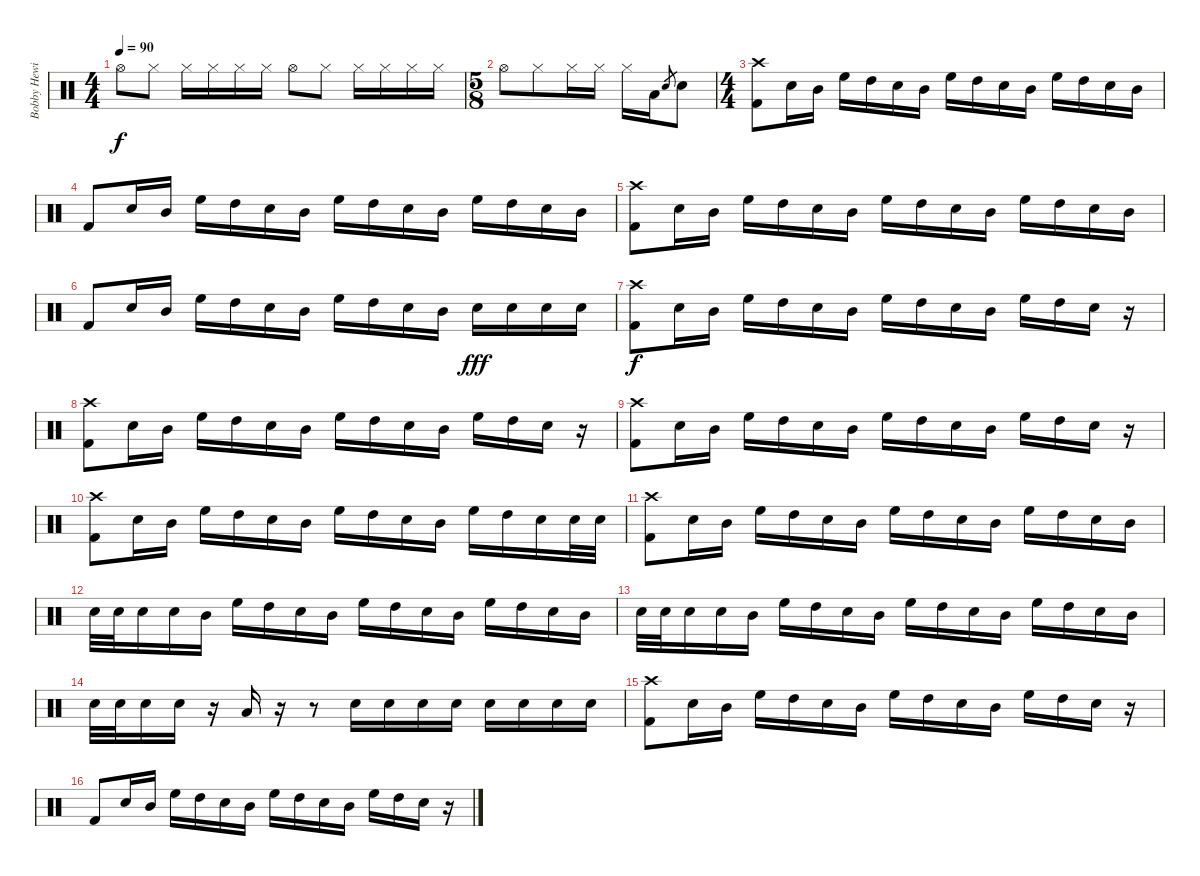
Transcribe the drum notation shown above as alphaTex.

\track ("Bobby Hewitt (Drums)" "Bobby Hewi") {instrument percussion}
\staff {score}
\articulation defaults
\ts (4 4)
\tempo 90
\clef neutral
\ks c "Hi-Hat (open)".8{dy f} "Hi-Hat (closed)".8 "Hi-Hat (closed)".16 "Hi-Hat (closed)".16 "Hi-Hat (closed)".16 "Hi-Hat (closed)".16 "Hi-Hat (open)".8 "Hi-Hat (closed)".8 "Hi-Hat (closed)".16 "Hi-Hat (closed)".16 "Hi-Hat (closed)".16 "Hi-Hat (closed)".16
|
\ts (5 8)
"Hi-Hat (open)".8 "Hi-Hat (closed)".8 "Hi-Hat (closed)".16 "Hi-Hat (closed)".16 "Hi-Hat (closed)".16 "Low Tom (hit)".16 "Electric Snare (hit)".8{gr} "Electric Snare (hit)".8 |
\ts (4 4)
("Crash high (hit)" "Kick (hit) 2").8 "Electric Snare (hit)".16 "Mid Tom (hit)".16 "High Floor Tom (hit)".16 "High Tom (hit)".16 "Electric Snare (hit)".16 "Mid Tom (hit)".16 "High Floor Tom (hit)".16 "High Tom (hit)".16 "Electric Snare (hit)".16 "Mid Tom (hit)".16 "High Floor Tom (hit)".16 "High Tom (hit)".16 "Electric Snare (hit)".16 "Mid Tom (hit)".16 |
"Kick (hit) 2".8 "Electric Snare (hit)".16 "Mid Tom (hit)".16 "High Floor Tom (hit)".16 "High Tom (hit)".16 "Electric Snare (hit)".16 "Mid Tom (hit)".16 "High Floor Tom (hit)".16 "High Tom (hit)".16 "Electric Snare (hit)".16 "Mid Tom (hit)".16 "High Floor Tom (hit)".16 "High Tom (hit)".16 "Electric Snare (hit)".16 "Mid Tom (hit)".16 |
("Crash high (hit)" "Kick (hit) 2").8 "Electric Snare (hit)".16 "Mid Tom (hit)".16 "High Floor Tom (hit)".16 "High Tom (hit)".16 "Electric Snare (hit)".16 "Mid Tom (hit)".16 "High Floor Tom (hit)".16 "High Tom (hit)".16 "Electric Snare (hit)".16 "Mid Tom (hit)".16 "High Floor Tom (hit)".16 "High Tom (hit)".16 "Electric Snare (hit)".16 "Mid Tom (hit)".16 |
"Kick (hit) 2".8 "Electric Snare (hit)".16 "Mid Tom (hit)".16 "High Floor Tom (hit)".16 "High Tom (hit)".16 "Electric Snare (hit)".16 "Mid Tom (hit)".16 "High Floor Tom (hit)".16 "High Tom (hit)".16 "Electric Snare (hit)".16 "Mid Tom (hit)".16 "Electric Snare (hit)".16{dy fff} "Electric Snare (hit)".16 "Electric Snare (hit)".16 "Electric Snare (hit)".16 |
("Crash high (hit)" "Kick (hit) 2").8{dy f} "Electric Snare (hit)".16 "Mid Tom (hit)".16 "High Floor Tom (hit)".16 "High Tom (hit)".16 "Electric Snare (hit)".16 "Mid Tom (hit)".16 "High Floor Tom (hit)".16 "High Tom (hit)".16 "Electric Snare (hit)".16 "Mid Tom (hit)".16 "High Floor Tom (hit)".16 "High Tom (hit)".16 "Electric Snare (hit)".16 r.16 |
("Crash high (hit)" "Kick (hit) 2").8 "Electric Snare (hit)".16 "Mid Tom (hit)".16 "High Floor Tom (hit)".16 "High Tom (hit)".16 "Electric Snare (hit)".16 "Mid Tom (hit)".16 "High Floor Tom (hit)".16 "High Tom (hit)".16 "Electric Snare (hit)".16 "Mid Tom (hit)".16 "High Floor Tom (hit)".16 "High Tom (hit)".16 "Electric Snare (hit)".16 r.16 |
("Crash high (hit)" "Kick (hit) 2").8 "Electric Snare (hit)".16 "Mid Tom (hit)".16 "High Floor Tom (hit)".16 "High Tom (hit)".16 "Electric Snare (hit)".16 "Mid Tom (hit)".16 "High Floor Tom (hit)".16 "High Tom (hit)".16 "Electric Snare (hit)".16 "Mid Tom (hit)".16 "High Floor Tom (hit)".16 "High Tom (hit)".16 "Electric Snare (hit)".16 r.16 |
("Crash high (hit)" "Kick (hit) 2").8 "Electric Snare (hit)".16 "Mid Tom (hit)".16 "High Floor Tom (hit)".16 "High Tom (hit)".16 "Electric Snare (hit)".16 "Mid Tom (hit)".16 "High Floor Tom (hit)".16 "High Tom (hit)".16 "Electric Snare (hit)".16 "Mid Tom (hit)".16 "High Floor Tom (hit)".16 "High Tom (hit)".16 "Electric Snare (hit)".16 "Electric Snare (hit)".32 "Electric Snare (hit)".32 |
("Crash high (hit)" "Kick (hit) 2").8 "Electric Snare (hit)".16 "Mid Tom (hit)".16 "High Floor Tom (hit)".16 "High Tom (hit)".16 "Electric Snare (hit)".16 "Mid Tom (hit)".16 "High Floor Tom (hit)".16 "High Tom (hit)".16 "Electric Snare (hit)".16 "Mid Tom (hit)".16 "High Floor Tom (hit)".16 "High Tom (hit)".16 "Electric Snare (hit)".16 "Mid Tom (hit)".16 |
"Electric Snare (hit)".32 "Electric Snare (hit)".32 "Electric Snare (hit)".16 "Electric Snare (hit)".16 "Mid Tom (hit)".16 "High Floor Tom (hit)".16 "High Tom (hit)".16 "Electric Snare (hit)".16 "Mid Tom (hit)".16 "High Floor Tom (hit)".16 "High Tom (hit)".16 "Electric Snare (hit)".16 "Mid Tom (hit)".16 "High Floor Tom (hit)".16 "High Tom (hit)".16 "Electric Snare (hit)".16 "Mid Tom (hit)".16 |
"Electric Snare (hit)".32 "Electric Snare (hit)".32 "Electric Snare (hit)".16 "Electric Snare (hit)".16 "Mid Tom (hit)".16 "High Floor Tom (hit)".16 "High Tom (hit)".16 "Electric Snare (hit)".16 "Mid Tom (hit)".16 "High Floor Tom (hit)".16 "High Tom (hit)".16 "Electric Snare (hit)".16 "Mid Tom (hit)".16 "High Floor Tom (hit)".16 "High Tom (hit)".16 "Electric Snare (hit)".16 "Mid Tom (hit)".16 |
"Electric Snare (hit)".32 "Electric Snare (hit)".32 "Electric Snare (hit)".16 "Electric Snare (hit)".16 r.16 "Low Tom (hit)".16 r.16 r.8 "Electric Snare (hit)".16 "Electric Snare (hit)".16 "Electric Snare (hit)".16 "Electric Snare (hit)".16 "Electric Snare (hit)".16 "Electric Snare (hit)".16 "Electric Snare (hit)".16 "Electric Snare (hit)".16 |
("Crash high (hit)" "Kick (hit) 2").8 "Electric Snare (hit)".16 "Mid Tom (hit)".16 "High Floor Tom (hit)".16 "High Tom (hit)".16 "Electric Snare (hit)".16 "Mid Tom (hit)".16 "High Floor Tom (hit)".16 "High Tom (hit)".16 "Electric Snare (hit)".16 "Mid Tom (hit)".16 "High Floor Tom (hit)".16 "High Tom (hit)".16 "Electric Snare (hit)".16 r.16 |
"Kick (hit) 2".8 "Electric Snare (hit)".16 "Mid Tom (hit)".16 "High Floor Tom (hit)".16 "High Tom (hit)".16 "Electric Snare (hit)".16 "Mid Tom (hit)".16 "High Floor Tom (hit)".16 "High Tom (hit)".16 "Electric Snare (hit)".16 "Mid Tom (hit)".16 "High Floor Tom (hit)".16 "High Tom (hit)".16 "Electric Snare (hit)".16 r.16
